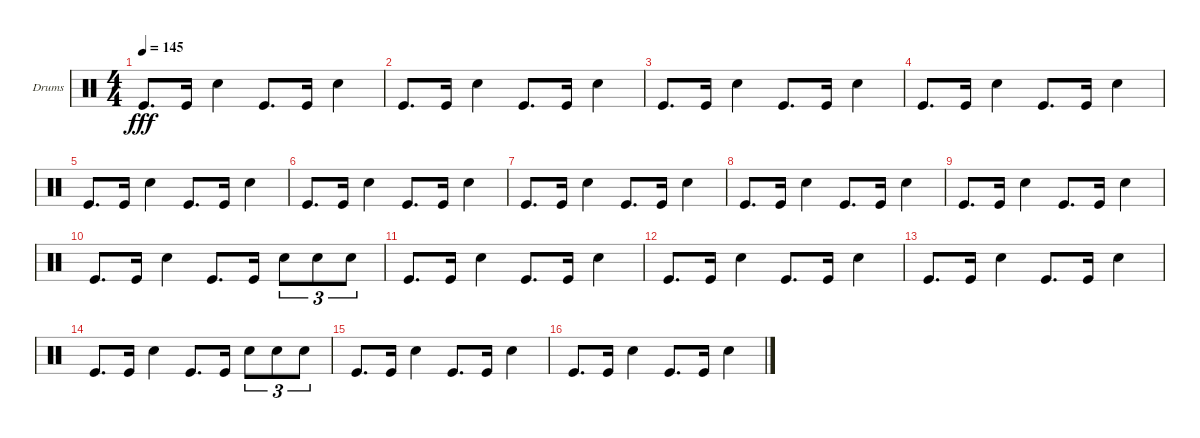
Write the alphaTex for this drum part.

\defaultSystemsLayout 4
\bracketExtendMode groupsimilarinstruments
\firstSystemTrackNameOrientation horizontal
\otherSystemsTrackNameOrientation horizontal
\track ("Helders" "Drums") {instrument percussion}
\staff {score}
\articulation defaults
\ts (4 4)
\tempo 145
\clef neutral
\ks c "Kick (hit)".8{d dy fff} "Kick (hit)".16 "Snare (hit) 2".4 "Kick (hit)".8{d} "Kick (hit)".16 "Snare (hit) 2".4
|
"Kick (hit)".8{d} "Kick (hit)".16 "Snare (hit) 2".4 "Kick (hit)".8{d} "Kick (hit)".16 "Snare (hit) 2".4 |
"Kick (hit)".8{d} "Kick (hit)".16 "Snare (hit) 2".4 "Kick (hit)".8{d} "Kick (hit)".16 "Snare (hit) 2".4 |
"Kick (hit)".8{d} "Kick (hit)".16 "Snare (hit) 2".4 "Kick (hit)".8{d} "Kick (hit)".16 "Snare (hit) 2".4 |
"Kick (hit)".8{d} "Kick (hit)".16 "Snare (hit) 2".4 "Kick (hit)".8{d} "Kick (hit)".16 "Snare (hit) 2".4 |
"Kick (hit)".8{d} "Kick (hit)".16 "Snare (hit) 2".4 "Kick (hit)".8{d} "Kick (hit)".16 "Snare (hit) 2".4 |
"Kick (hit)".8{d} "Kick (hit)".16 "Snare (hit) 2".4 "Kick (hit)".8{d} "Kick (hit)".16 "Snare (hit) 2".4 |
"Kick (hit)".8{d} "Kick (hit)".16 "Snare (hit) 2".4 "Kick (hit)".8{d} "Kick (hit)".16 "Snare (hit) 2".4 |
"Kick (hit)".8{d} "Kick (hit)".16 "Snare (hit) 2".4 "Kick (hit)".8{d} "Kick (hit)".16 "Snare (hit) 2".4 |
"Kick (hit)".8{d} "Kick (hit)".16 "Snare (hit) 2".4 "Kick (hit)".8{d} "Kick (hit)".16 "Snare (hit) 2".8{tu (3 2)} "Snare (hit) 2".8{tu (3 2)} "Snare (hit) 2".8{tu (3 2)} |
"Kick (hit)".8{d} "Kick (hit)".16 "Snare (hit) 2".4 "Kick (hit)".8{d} "Kick (hit)".16 "Snare (hit) 2".4 |
"Kick (hit)".8{d} "Kick (hit)".16 "Snare (hit) 2".4 "Kick (hit)".8{d} "Kick (hit)".16 "Snare (hit) 2".4 |
"Kick (hit)".8{d} "Kick (hit)".16 "Snare (hit) 2".4 "Kick (hit)".8{d} "Kick (hit)".16 "Snare (hit) 2".4 |
"Kick (hit)".8{d} "Kick (hit)".16 "Snare (hit) 2".4 "Kick (hit)".8{d} "Kick (hit)".16 "Snare (hit) 2".8{tu (3 2)} "Snare (hit) 2".8{tu (3 2)} "Snare (hit) 2".8{tu (3 2)} |
"Kick (hit)".8{d} "Kick (hit)".16 "Snare (hit) 2".4 "Kick (hit)".8{d} "Kick (hit)".16 "Snare (hit) 2".4 |
"Kick (hit)".8{d} "Kick (hit)".16 "Snare (hit) 2".4 "Kick (hit)".8{d} "Kick (hit)".16 "Snare (hit) 2".4
